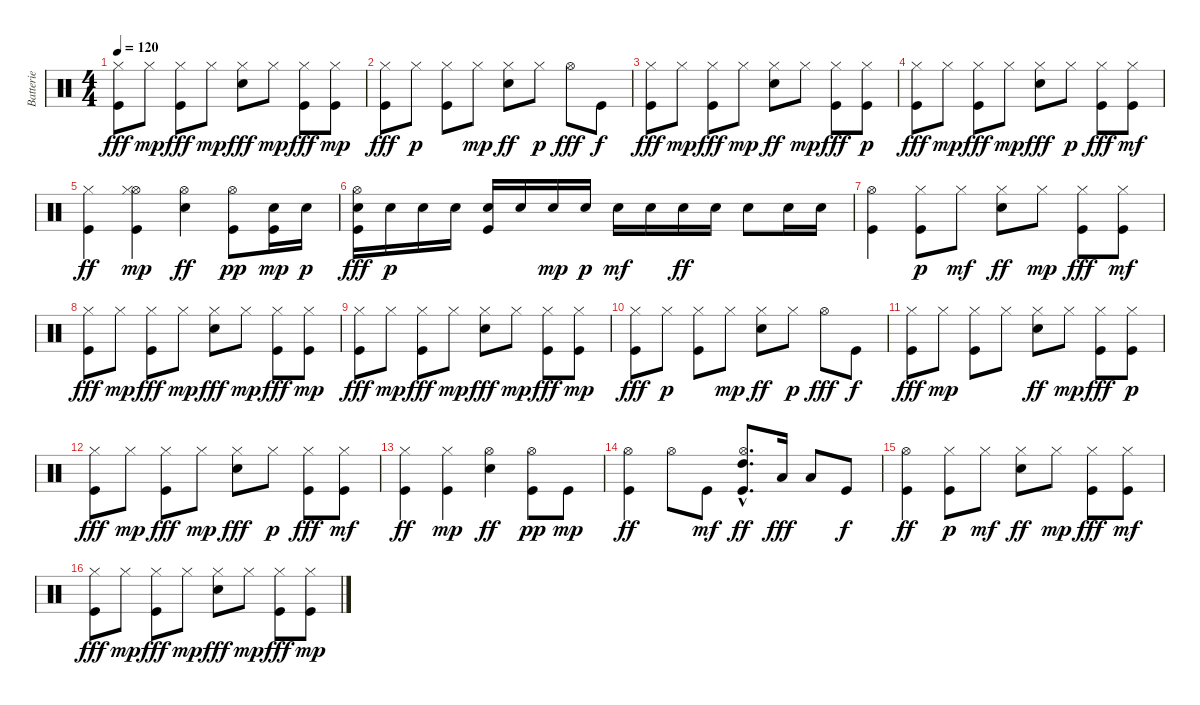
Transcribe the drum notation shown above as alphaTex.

\track ("Batterie" "Batterie") {instrument percussion}
\staff {score}
\articulation defaults
\ts (4 4)
\tempo 120
\clef neutral
\ks c
("Kick (hit)" "Hi-Hat (closed)").8{dy fff} "Hi-Hat (closed)".8{dy mp} ("Kick (hit)" "Hi-Hat (closed)").8{dy fff} "Hi-Hat (closed)".8{dy mp} ("Electric Snare (hit)" "Hi-Hat (closed)").8{dy fff} "Hi-Hat (closed)".8{dy mp} ("Kick (hit)" "Hi-Hat (closed)").8{dy fff} ("Hi-Hat (closed)" "Kick (hit)").8{dy mp} |
("Kick (hit)" "Hi-Hat (closed)").8{dy fff} "Hi-Hat (closed)".8{dy p} ("Hi-Hat (closed)" "Kick (hit)").8 "Hi-Hat (closed)".8{dy mp} ("Hi-Hat (closed)" "Electric Snare (hit)").8{dy ff} "Hi-Hat (closed)".8{dy p} "Hi-Hat (open)".8{dy fff} "Kick (hit)".8{dy f} |
("Kick (hit)" "Hi-Hat (closed)").8{dy fff} "Hi-Hat (closed)".8{dy mp} ("Kick (hit)" "Hi-Hat (closed)").8{dy fff} "Hi-Hat (closed)".8{dy mp} ("Hi-Hat (closed)" "Electric Snare (hit)").8{dy ff} "Hi-Hat (closed)".8{dy mp} ("Kick (hit)" "Hi-Hat (closed)").8{dy fff} ("Kick (hit)" "Hi-Hat (closed)").8{dy p} |
("Kick (hit)" "Hi-Hat (closed)").8{dy fff} "Hi-Hat (closed)".8{dy mp} ("Kick (hit)" "Hi-Hat (closed)").8{dy fff} "Hi-Hat (closed)".8{dy mp} ("Electric Snare (hit)" "Hi-Hat (closed)").8{dy fff} "Hi-Hat (closed)".8{dy p} ("Kick (hit)" "Hi-Hat (closed)").8{dy fff} ("Kick (hit)" "Hi-Hat (closed)").8{dy mf} |
("Kick (hit)" "Hi-Hat (closed)").4{dy ff} ("Hi-Hat (open)" "Hi-Hat (closed)" "Kick (hit)").4{dy mp} ("Hi-Hat (open)" "Electric Snare (hit)").4{dy ff} ("Hi-Hat (open)" "Kick (hit)").8{dy pp} ("Electric Snare (hit)" "Kick (hit)").16{dy mp} "Electric Snare (hit)".16{dy p} |
("Electric Snare (hit)" "Kick (hit)" "Hi-Hat (open)").16{dy fff} "Electric Snare (hit)".16{dy p} "Electric Snare (hit)".16 "Electric Snare (hit)".16 ("Electric Snare (hit)" "Kick (hit)").16 "Electric Snare (hit)".16 "Electric Snare (hit)".16{dy mp} "Electric Snare (hit)".16{dy p} "Electric Snare (hit)".16{dy mf} "Electric Snare (hit)".16 "Electric Snare (hit)".16{dy ff} "Electric Snare (hit)".16 "Electric Snare (hit)".8 "Electric Snare (hit)".16 "Electric Snare (hit)".16 |
("Hi-Hat (open)" "Kick (hit)").4 ("Hi-Hat (closed)" "Kick (hit)").8{dy p} "Hi-Hat (closed)".8{dy mf} ("Hi-Hat (closed)" "Electric Snare (hit)").8{dy ff} "Hi-Hat (closed)".8{dy mp} ("Kick (hit)" "Hi-Hat (closed)").8{dy fff} ("Kick (hit)" "Hi-Hat (closed)").8{dy mf} |
("Kick (hit)" "Hi-Hat (closed)").8{dy fff} "Hi-Hat (closed)".8{dy mp} ("Kick (hit)" "Hi-Hat (closed)").8{dy fff} "Hi-Hat (closed)".8{dy mp} ("Electric Snare (hit)" "Hi-Hat (closed)").8{dy fff} "Hi-Hat (closed)".8{dy mp} ("Kick (hit)" "Hi-Hat (closed)").8{dy fff} ("Hi-Hat (closed)" "Kick (hit)").8{dy mp} |
("Kick (hit)" "Hi-Hat (closed)").8{dy fff} "Hi-Hat (closed)".8{dy mp} ("Kick (hit)" "Hi-Hat (closed)").8{dy fff} "Hi-Hat (closed)".8{dy mp} ("Electric Snare (hit)" "Hi-Hat (closed)").8{dy fff} "Hi-Hat (closed)".8{dy mp} ("Kick (hit)" "Hi-Hat (closed)").8{dy fff} ("Hi-Hat (closed)" "Kick (hit)").8{dy mp} |
("Kick (hit)" "Hi-Hat (closed)").8{dy fff} "Hi-Hat (closed)".8{dy p} ("Hi-Hat (closed)" "Kick (hit)").8 "Hi-Hat (closed)".8{dy mp} ("Hi-Hat (closed)" "Electric Snare (hit)").8{dy ff} "Hi-Hat (closed)".8{dy p} "Hi-Hat (open)".8{dy fff} "Kick (hit)".8{dy f} |
("Kick (hit)" "Hi-Hat (closed)").8{dy fff} "Hi-Hat (closed)".8{dy mp} ("Hi-Hat (closed)" "Kick (hit)").8 "Hi-Hat (closed)".8 ("Hi-Hat (closed)" "Electric Snare (hit)").8{dy ff} "Hi-Hat (closed)".8{dy mp} ("Kick (hit)" "Hi-Hat (closed)").8{dy fff} ("Kick (hit)" "Hi-Hat (closed)").8{dy p} |
("Kick (hit)" "Hi-Hat (closed)").8{dy fff} "Hi-Hat (closed)".8{dy mp} ("Kick (hit)" "Hi-Hat (closed)").8{dy fff} "Hi-Hat (closed)".8{dy mp} ("Electric Snare (hit)" "Hi-Hat (closed)").8{dy fff} "Hi-Hat (closed)".8{dy p} ("Kick (hit)" "Hi-Hat (closed)").8{dy fff} ("Kick (hit)" "Hi-Hat (closed)").8{dy mf} |
("Kick (hit)" "Hi-Hat (closed)").4{dy ff} ("Hi-Hat (closed)" "Kick (hit)").4{dy mp} ("Hi-Hat (open)" "Electric Snare (hit)").4{dy ff} ("Hi-Hat (open)" "Kick (hit)").8{dy pp} "Kick (hit)".8{dy mp} |
("Hi-Hat (open)" "Kick (hit)").4{dy ff} "Hi-Hat (open)".8 "Kick (hit)".8{dy mf} ("Hi-Hat (open)"{hac} "High Tom (hit)"{hac} "Kick (hit)"{hac}).8{d dy ff} "Low Tom (hit)".16{dy fff} "Low Tom (hit)".8 "Kick (hit)".8{dy f} |
("Hi-Hat (open)" "Kick (hit)").4{dy ff} ("Hi-Hat (closed)" "Kick (hit)").8{dy p} "Hi-Hat (closed)".8{dy mf} ("Hi-Hat (closed)" "Electric Snare (hit)").8{dy ff} "Hi-Hat (closed)".8{dy mp} ("Kick (hit)" "Hi-Hat (closed)").8{dy fff} ("Kick (hit)" "Hi-Hat (closed)").8{dy mf} |
("Kick (hit)" "Hi-Hat (closed)").8{dy fff} "Hi-Hat (closed)".8{dy mp} ("Kick (hit)" "Hi-Hat (closed)").8{dy fff} "Hi-Hat (closed)".8{dy mp} ("Electric Snare (hit)" "Hi-Hat (closed)").8{dy fff} "Hi-Hat (closed)".8{dy mp} ("Kick (hit)" "Hi-Hat (closed)").8{dy fff} ("Hi-Hat (closed)" "Kick (hit)").8{dy mp}
